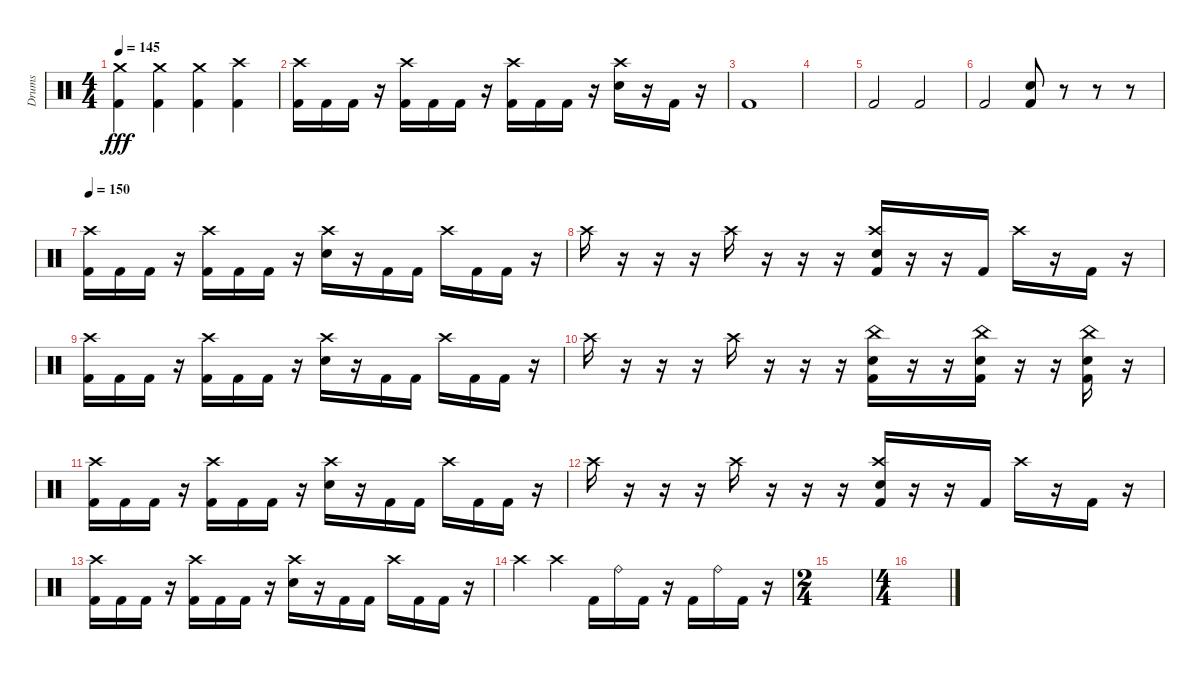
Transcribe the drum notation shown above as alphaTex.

\track ("Drums" "Drums") {instrument percussion}
\staff {score}
\articulation defaults
\ts (4 4)
\tempo 145
\clef neutral
\ks c
("Crash medium (hit)" "Kick (hit) 2").4{dy fff} ("Crash medium (hit)" "Kick (hit) 2").4 ("Crash medium (hit)" "Kick (hit) 2").4 ("Crash high (hit)" "Kick (hit) 2").4 |
("Crash high (hit)" "Kick (hit) 2").16 "Kick (hit) 2".16 "Kick (hit) 2".16 r.16 ("Crash high (hit)" "Kick (hit) 2").16 "Kick (hit) 2".16 "Kick (hit) 2".16 r.16 ("Crash high (hit)" "Kick (hit) 2").16 "Kick (hit) 2".16 "Kick (hit) 2".16 r.16 ("Crash high (hit)" "Electric Snare (hit)").16 r.16 "Kick (hit) 2".16 r.16 |
"Kick (hit) 2".1 |
|
"Kick (hit) 2".2 "Kick (hit) 2".2 |
"Kick (hit) 2".2 ("Electric Snare (hit)" "Kick (hit) 2").8 r.8 r.8 r.8 |
\tempo 150
("Crash high (hit)" "Kick (hit) 2").16 "Kick (hit) 2".16 "Kick (hit) 2".16 r.16 ("Crash high (hit)" "Kick (hit) 2").16 "Kick (hit) 2".16 "Kick (hit) 2".16 r.16 ("Crash high (hit)" "Electric Snare (hit)").16 r.16 "Kick (hit) 2".16 "Kick (hit) 2".16 "Crash high (hit)".16 "Kick (hit) 2".16 "Kick (hit) 2".16 r.16 |
"Crash high (hit)".16 r.16 r.16 r.16 "Crash high (hit)".16 r.16 r.16 r.16 ("Crash high (hit)" "Electric Snare (hit)" "Kick (hit) 2").16 r.16 r.16 "Kick (hit) 2".16 "Crash high (hit)".16 r.16 "Kick (hit) 2".16 r.16 |
("Crash high (hit)" "Kick (hit) 2").16 "Kick (hit) 2".16 "Kick (hit) 2".16 r.16 ("Crash high (hit)" "Kick (hit) 2").16 "Kick (hit) 2".16 "Kick (hit) 2".16 r.16 ("Crash high (hit)" "Electric Snare (hit)").16 r.16 "Kick (hit) 2".16 "Kick (hit) 2".16 "Crash high (hit)".16 "Kick (hit) 2".16 "Kick (hit) 2".16 r.16 |
"Crash high (hit)".16 r.16 r.16 r.16 "Crash high (hit)".16 r.16 r.16 r.16 ("China (hit)" "Electric Snare (hit)" "Kick (hit) 2").16 r.16 r.16 ("China (hit)" "Electric Snare (hit)" "Kick (hit) 2").16 r.16 r.16 ("China (hit)" "Electric Snare (hit)" "Kick (hit) 2").16 r.16 |
("Crash high (hit)" "Kick (hit) 2").16 "Kick (hit) 2".16 "Kick (hit) 2".16 r.16 ("Crash high (hit)" "Kick (hit) 2").16 "Kick (hit) 2".16 "Kick (hit) 2".16 r.16 ("Crash high (hit)" "Electric Snare (hit)").16 r.16 "Kick (hit) 2".16 "Kick (hit) 2".16 "Crash high (hit)".16 "Kick (hit) 2".16 "Kick (hit) 2".16 r.16 |
"Crash high (hit)".16 r.16 r.16 r.16 "Crash high (hit)".16 r.16 r.16 r.16 ("Crash high (hit)" "Electric Snare (hit)" "Kick (hit) 2").16 r.16 r.16 "Kick (hit) 2".16 "Crash high (hit)".16 r.16 "Kick (hit) 2".16 r.16 |
("Crash high (hit)" "Kick (hit) 2").16 "Kick (hit) 2".16 "Kick (hit) 2".16 r.16 ("Crash high (hit)" "Kick (hit) 2").16 "Kick (hit) 2".16 "Kick (hit) 2".16 r.16 ("Crash high (hit)" "Electric Snare (hit)").16 r.16 "Kick (hit) 2".16 "Kick (hit) 2".16 "Crash high (hit)".16 "Kick (hit) 2".16 "Kick (hit) 2".16 r.16 |
"Crash high (hit)".4 "Crash high (hit)".4 "Kick (hit) 2".16 "Ride (bell)".16 "Kick (hit) 2".16 r.16 "Kick (hit) 2".16 "Ride (bell)".16 "Kick (hit) 2".16 r.16 |
\ts (2 4)
|
\ts (4 4)
